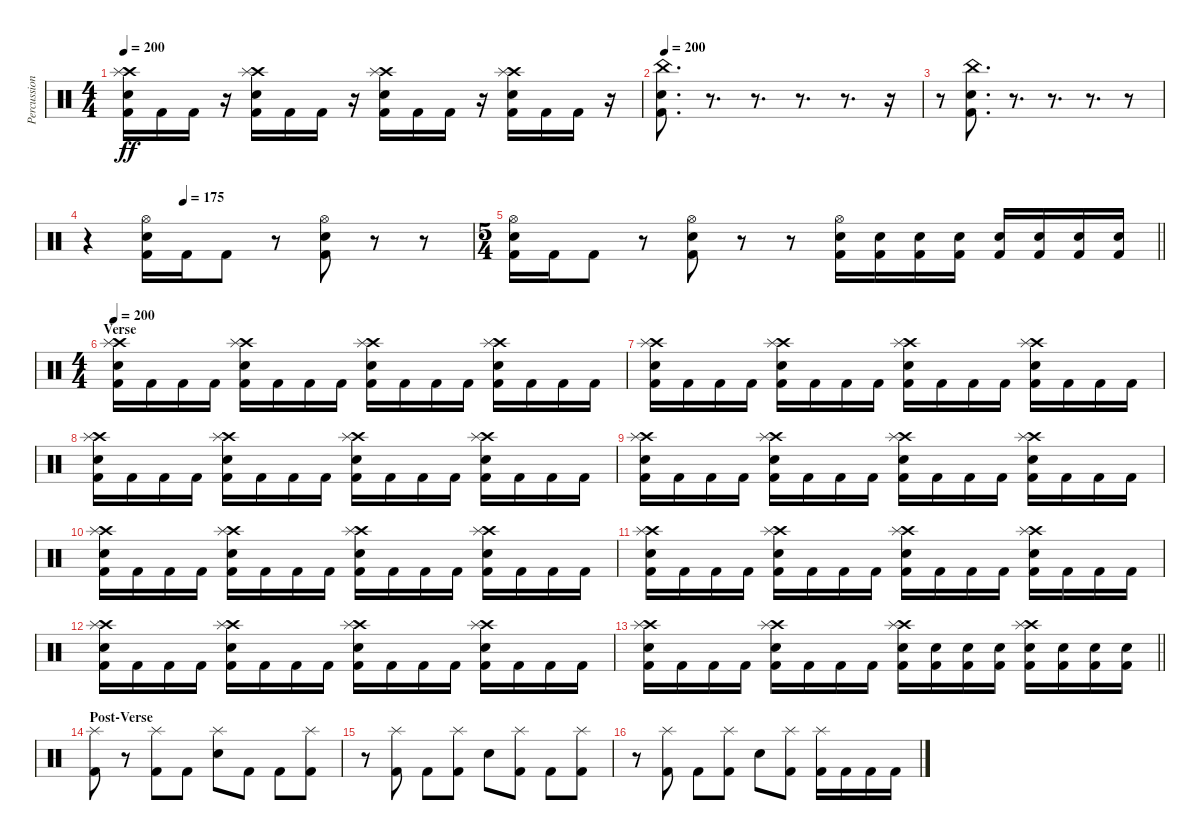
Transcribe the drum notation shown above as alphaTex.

\track ("Percussion" "Percussion") {instrument percussion}
\staff {score}
\articulation defaults
\ts (4 4)
\tempo 200
\clef neutral
\ks c
("Crash high (hit)" "Splash (hit)" "Electric Snare (hit)" "Kick (hit) 2").16{dy ff} "Kick (hit) 2".16 "Kick (hit) 2".16 r.16 ("Crash high (hit)" "Splash (hit)" "Electric Snare (hit)" "Kick (hit) 2").16 "Kick (hit) 2".16 "Kick (hit) 2".16 r.16 ("Crash high (hit)" "Splash (hit)" "Electric Snare (hit)" "Kick (hit) 2").16 "Kick (hit) 2".16 "Kick (hit) 2".16 r.16 ("Crash high (hit)" "Splash (hit)" "Electric Snare (hit)" "Kick (hit) 2").16 "Kick (hit) 2".16 "Kick (hit) 2".16 r.16 |
\tempo 200
("China (hit)" "Electric Snare (hit)" "Kick (hit) 2").8{d} r.8{d} r.8{d} r.8{d} r.8{d} r.16 |
r.8 ("China (hit)" "Electric Snare (hit)" "Kick (hit) 2").8{d} r.8{d} r.8{d} r.8{d} r.8 |
\tempo (175 0.25)
r.4 ("Hi-Hat (open)" "Electric Snare (hit)" "Kick (hit) 2").16 "Kick (hit) 2".16 "Kick (hit) 2".8 r.8 ("Hi-Hat (open)" "Electric Snare (hit)" "Kick (hit) 2").8 r.8 r.8 |
\ts (5 4)
\barLineRight lightlight
("Hi-Hat (open)" "Electric Snare (hit)" "Kick (hit) 2").16 "Kick (hit) 2".16 "Kick (hit) 2".8 r.8 ("Hi-Hat (open)" "Electric Snare (hit)" "Kick (hit) 2").8 r.8 r.8 ("Hi-Hat (open)" "Electric Snare (hit)" "Kick (hit) 2").16 ("Electric Snare (hit)" "Kick (hit) 2").16 ("Electric Snare (hit)" "Kick (hit) 2").16 ("Electric Snare (hit)" "Kick (hit) 2").16 ("Electric Snare (hit)" "Kick (hit) 2").16 ("Electric Snare (hit)" "Kick (hit) 2").16 ("Electric Snare (hit)" "Kick (hit) 2").16 ("Electric Snare (hit)" "Kick (hit) 2").16 |
\ts (4 4)
\section ("" "Verse")
\tempo 200
("Crash high (hit)" "Splash (hit)" "Electric Snare (hit)" "Kick (hit) 2").16 "Kick (hit) 2".16 "Kick (hit) 2".16 "Kick (hit) 2".16 ("Crash high (hit)" "Splash (hit)" "Electric Snare (hit)" "Kick (hit) 2").16 "Kick (hit) 2".16 "Kick (hit) 2".16 "Kick (hit) 2".16 ("Crash high (hit)" "Splash (hit)" "Electric Snare (hit)" "Kick (hit) 2").16 "Kick (hit) 2".16 "Kick (hit) 2".16 "Kick (hit) 2".16 ("Crash high (hit)" "Splash (hit)" "Electric Snare (hit)" "Kick (hit) 2").16 "Kick (hit) 2".16 "Kick (hit) 2".16 "Kick (hit) 2".16 |
("Crash high (hit)" "Splash (hit)" "Electric Snare (hit)" "Kick (hit) 2").16 "Kick (hit) 2".16 "Kick (hit) 2".16 "Kick (hit) 2".16 ("Crash high (hit)" "Splash (hit)" "Electric Snare (hit)" "Kick (hit) 2").16 "Kick (hit) 2".16 "Kick (hit) 2".16 "Kick (hit) 2".16 ("Crash high (hit)" "Splash (hit)" "Electric Snare (hit)" "Kick (hit) 2").16 "Kick (hit) 2".16 "Kick (hit) 2".16 "Kick (hit) 2".16 ("Crash high (hit)" "Splash (hit)" "Electric Snare (hit)" "Kick (hit) 2").16 "Kick (hit) 2".16 "Kick (hit) 2".16 "Kick (hit) 2".16 |
("Crash high (hit)" "Splash (hit)" "Electric Snare (hit)" "Kick (hit) 2").16 "Kick (hit) 2".16 "Kick (hit) 2".16 "Kick (hit) 2".16 ("Crash high (hit)" "Splash (hit)" "Electric Snare (hit)" "Kick (hit) 2").16 "Kick (hit) 2".16 "Kick (hit) 2".16 "Kick (hit) 2".16 ("Crash high (hit)" "Splash (hit)" "Electric Snare (hit)" "Kick (hit) 2").16 "Kick (hit) 2".16 "Kick (hit) 2".16 "Kick (hit) 2".16 ("Crash high (hit)" "Splash (hit)" "Electric Snare (hit)" "Kick (hit) 2").16 "Kick (hit) 2".16 "Kick (hit) 2".16 "Kick (hit) 2".16 |
("Crash high (hit)" "Splash (hit)" "Electric Snare (hit)" "Kick (hit) 2").16 "Kick (hit) 2".16 "Kick (hit) 2".16 "Kick (hit) 2".16 ("Crash high (hit)" "Splash (hit)" "Electric Snare (hit)" "Kick (hit) 2").16 "Kick (hit) 2".16 "Kick (hit) 2".16 "Kick (hit) 2".16 ("Crash high (hit)" "Splash (hit)" "Electric Snare (hit)" "Kick (hit) 2").16 "Kick (hit) 2".16 "Kick (hit) 2".16 "Kick (hit) 2".16 ("Crash high (hit)" "Splash (hit)" "Electric Snare (hit)" "Kick (hit) 2").16 "Kick (hit) 2".16 "Kick (hit) 2".16 "Kick (hit) 2".16 |
("Crash high (hit)" "Splash (hit)" "Electric Snare (hit)" "Kick (hit) 2").16 "Kick (hit) 2".16 "Kick (hit) 2".16 "Kick (hit) 2".16 ("Crash high (hit)" "Splash (hit)" "Electric Snare (hit)" "Kick (hit) 2").16 "Kick (hit) 2".16 "Kick (hit) 2".16 "Kick (hit) 2".16 ("Crash high (hit)" "Splash (hit)" "Electric Snare (hit)" "Kick (hit) 2").16 "Kick (hit) 2".16 "Kick (hit) 2".16 "Kick (hit) 2".16 ("Crash high (hit)" "Splash (hit)" "Electric Snare (hit)" "Kick (hit) 2").16 "Kick (hit) 2".16 "Kick (hit) 2".16 "Kick (hit) 2".16 |
("Crash high (hit)" "Splash (hit)" "Electric Snare (hit)" "Kick (hit) 2").16 "Kick (hit) 2".16 "Kick (hit) 2".16 "Kick (hit) 2".16 ("Crash high (hit)" "Splash (hit)" "Electric Snare (hit)" "Kick (hit) 2").16 "Kick (hit) 2".16 "Kick (hit) 2".16 "Kick (hit) 2".16 ("Crash high (hit)" "Splash (hit)" "Electric Snare (hit)" "Kick (hit) 2").16 "Kick (hit) 2".16 "Kick (hit) 2".16 "Kick (hit) 2".16 ("Crash high (hit)" "Splash (hit)" "Electric Snare (hit)" "Kick (hit) 2").16 "Kick (hit) 2".16 "Kick (hit) 2".16 "Kick (hit) 2".16 |
("Crash high (hit)" "Splash (hit)" "Electric Snare (hit)" "Kick (hit) 2").16 "Kick (hit) 2".16 "Kick (hit) 2".16 "Kick (hit) 2".16 ("Crash high (hit)" "Splash (hit)" "Electric Snare (hit)" "Kick (hit) 2").16 "Kick (hit) 2".16 "Kick (hit) 2".16 "Kick (hit) 2".16 ("Crash high (hit)" "Splash (hit)" "Electric Snare (hit)" "Kick (hit) 2").16 "Kick (hit) 2".16 "Kick (hit) 2".16 "Kick (hit) 2".16 ("Crash high (hit)" "Splash (hit)" "Electric Snare (hit)" "Kick (hit) 2").16 "Kick (hit) 2".16 "Kick (hit) 2".16 "Kick (hit) 2".16 |
\barLineRight lightlight
("Crash high (hit)" "Splash (hit)" "Electric Snare (hit)" "Kick (hit) 2").16 "Kick (hit) 2".16 "Kick (hit) 2".16 "Kick (hit) 2".16 ("Crash high (hit)" "Splash (hit)" "Electric Snare (hit)" "Kick (hit) 2").16 "Kick (hit) 2".16 "Kick (hit) 2".16 "Kick (hit) 2".16 ("Crash high (hit)" "Splash (hit)" "Electric Snare (hit)" "Kick (hit) 2").16 ("Electric Snare (hit)" "Kick (hit) 2").16 ("Electric Snare (hit)" "Kick (hit) 2").16 ("Electric Snare (hit)" "Kick (hit) 2").16 ("Crash high (hit)" "Splash (hit)" "Electric Snare (hit)" "Kick (hit) 2").16 ("Electric Snare (hit)" "Kick (hit) 2").16 ("Electric Snare (hit)" "Kick (hit) 2").16 ("Electric Snare (hit)" "Kick (hit) 2").16 |
\section ("" "Post-Verse")
("Splash (hit)" "Kick (hit) 2").8 r.8 ("Splash (hit)" "Kick (hit) 2").8 "Kick (hit) 2".8 ("Splash (hit)" "Electric Snare (hit)").8 "Kick (hit) 2".8 "Kick (hit) 2".8 ("Splash (hit)" "Kick (hit) 2").8 |
r.8 ("Splash (hit)" "Kick (hit) 2").8 "Kick (hit) 2".8 ("Splash (hit)" "Kick (hit) 2").8 "Electric Snare (hit)".8 ("Splash (hit)" "Kick (hit) 2").8 "Kick (hit) 2".8 ("Splash (hit)" "Kick (hit) 2").8 |
r.8 ("Splash (hit)" "Kick (hit) 2").8 "Kick (hit) 2".8 ("Splash (hit)" "Kick (hit) 2").8 "Electric Snare (hit)".8 ("Splash (hit)" "Kick (hit) 2").8 ("Splash (hit)" "Kick (hit) 2").16 "Kick (hit) 2".16 "Kick (hit) 2".16 "Kick (hit) 2".16
